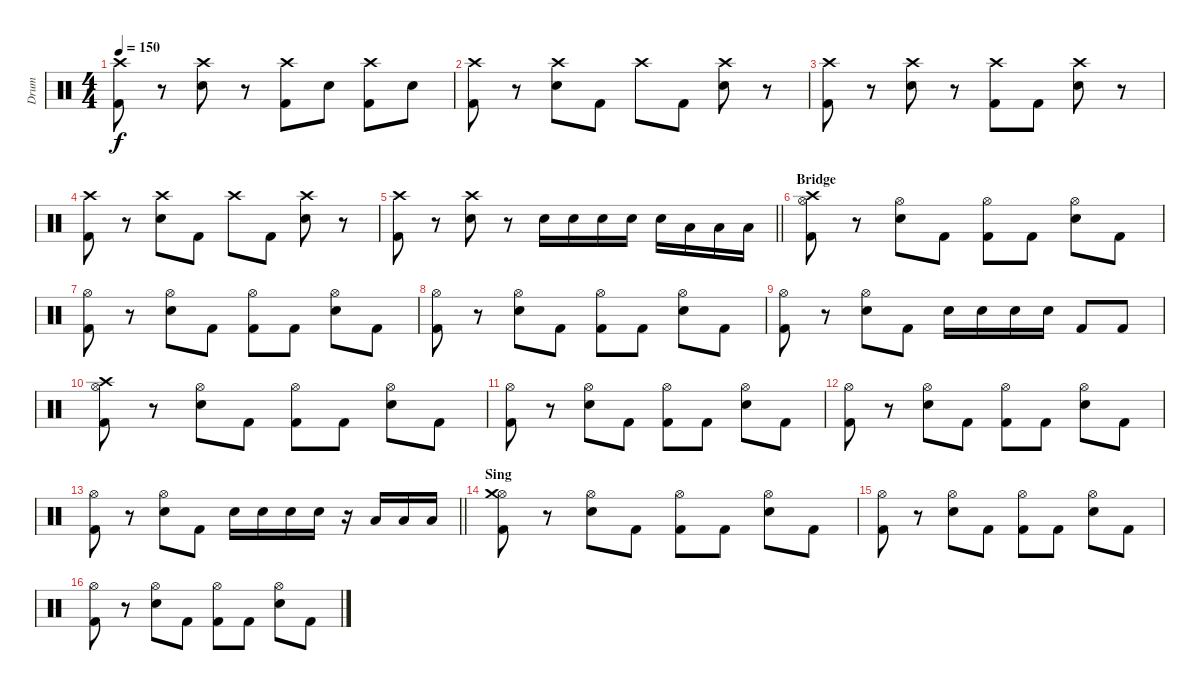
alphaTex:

\track ("Drum" "Drum") {instrument percussion}
\staff {score}
\articulation defaults
\ts (4 4)
\tempo 150
\clef neutral
\ks c
("Crash high (hit)" "Kick (hit) 2").8{dy f} r.8 ("Crash high (hit)" "Electric Snare (hit)").8 r.8 ("Crash high (hit)" "Kick (hit) 2").8 "Electric Snare (hit)".8 ("Crash high (hit)" "Kick (hit) 2").8 "Electric Snare (hit)".8 |
("Crash high (hit)" "Kick (hit) 2").8 r.8 ("Crash high (hit)" "Electric Snare (hit)").8 "Kick (hit) 2".8 "Crash high (hit)".8 "Kick (hit) 2".8 ("Crash high (hit)" "Electric Snare (hit)").8 r.8 |
("Crash high (hit)" "Kick (hit) 2").8 r.8 ("Crash high (hit)" "Electric Snare (hit)").8 r.8 ("Crash high (hit)" "Kick (hit) 2").8 "Kick (hit) 2".8 ("Crash high (hit)" "Electric Snare (hit)").8 r.8 |
("Crash high (hit)" "Kick (hit) 2").8 r.8 ("Crash high (hit)" "Electric Snare (hit)").8 "Kick (hit) 2".8 "Crash high (hit)".8 "Kick (hit) 2".8 ("Crash high (hit)" "Electric Snare (hit)").8 r.8 |
\barLineRight lightlight
("Crash high (hit)" "Kick (hit) 2").8 r.8 ("Crash high (hit)" "Electric Snare (hit)").8 r.8 "Electric Snare (hit)".16 "Electric Snare (hit)".16 "Electric Snare (hit)".16 "Electric Snare (hit)".16 "Electric Snare (hit)".16 "Low Floor Tom (hit)".16 "Low Floor Tom (hit)".16 "Low Floor Tom (hit)".16 |
\section ("" "Bridge")
("Hi-Hat (open)" "Kick (hit) 2" "Crash high (hit)").8 r.8 ("Hi-Hat (open)" "Electric Snare (hit)").8 "Kick (hit) 2".8 ("Hi-Hat (open)" "Kick (hit) 2").8 "Kick (hit) 2".8 ("Hi-Hat (open)" "Electric Snare (hit)").8 "Kick (hit) 2".8 |
("Hi-Hat (open)" "Kick (hit) 2").8 r.8 ("Hi-Hat (open)" "Electric Snare (hit)").8 "Kick (hit) 2".8 ("Hi-Hat (open)" "Kick (hit) 2").8 "Kick (hit) 2".8 ("Hi-Hat (open)" "Electric Snare (hit)").8 "Kick (hit) 2".8 |
("Hi-Hat (open)" "Kick (hit) 2").8 r.8 ("Hi-Hat (open)" "Electric Snare (hit)").8 "Kick (hit) 2".8 ("Hi-Hat (open)" "Kick (hit) 2").8 "Kick (hit) 2".8 ("Hi-Hat (open)" "Electric Snare (hit)").8 "Kick (hit) 2".8 |
("Hi-Hat (open)" "Kick (hit) 2").8 r.8 ("Hi-Hat (open)" "Electric Snare (hit)").8 "Kick (hit) 2".8 "Electric Snare (hit)".16 "Electric Snare (hit)".16 "Electric Snare (hit)".16 "Electric Snare (hit)".16 "Kick (hit) 2".8 "Kick (hit) 2".8 |
("Hi-Hat (open)" "Kick (hit) 2" "Crash high (hit)").8 r.8 ("Hi-Hat (open)" "Electric Snare (hit)").8 "Kick (hit) 2".8 ("Hi-Hat (open)" "Kick (hit) 2").8 "Kick (hit) 2".8 ("Hi-Hat (open)" "Electric Snare (hit)").8 "Kick (hit) 2".8 |
("Hi-Hat (open)" "Kick (hit) 2").8 r.8 ("Hi-Hat (open)" "Electric Snare (hit)").8 "Kick (hit) 2".8 ("Hi-Hat (open)" "Kick (hit) 2").8 "Kick (hit) 2".8 ("Hi-Hat (open)" "Electric Snare (hit)").8 "Kick (hit) 2".8 |
("Hi-Hat (open)" "Kick (hit) 2").8 r.8 ("Hi-Hat (open)" "Electric Snare (hit)").8 "Kick (hit) 2".8 ("Hi-Hat (open)" "Kick (hit) 2").8 "Kick (hit) 2".8 ("Hi-Hat (open)" "Electric Snare (hit)").8 "Kick (hit) 2".8 |
\barLineRight lightlight
("Hi-Hat (open)" "Kick (hit) 2").8 r.8 ("Hi-Hat (open)" "Electric Snare (hit)").8 "Kick (hit) 2".8 "Electric Snare (hit)".16 "Electric Snare (hit)".16 "Electric Snare (hit)".16 "Electric Snare (hit)".16 r.16 "Low Floor Tom (hit)".16 "Low Floor Tom (hit)".16 "Low Floor Tom (hit)".16 |
\section ("" "Sing")
("Hi-Hat (open)" "Kick (hit) 2" "Crash medium (hit)").8 r.8 ("Hi-Hat (open)" "Electric Snare (hit)").8 "Kick (hit) 2".8 ("Hi-Hat (open)" "Kick (hit) 2").8 "Kick (hit) 2".8 ("Hi-Hat (open)" "Electric Snare (hit)").8 "Kick (hit) 2".8 |
("Hi-Hat (open)" "Kick (hit) 2").8 r.8 ("Hi-Hat (open)" "Electric Snare (hit)").8 "Kick (hit) 2".8 ("Hi-Hat (open)" "Kick (hit) 2").8 "Kick (hit) 2".8 ("Hi-Hat (open)" "Electric Snare (hit)").8 "Kick (hit) 2".8 |
("Hi-Hat (open)" "Kick (hit) 2").8 r.8 ("Hi-Hat (open)" "Electric Snare (hit)").8 "Kick (hit) 2".8 ("Hi-Hat (open)" "Kick (hit) 2").8 "Kick (hit) 2".8 ("Hi-Hat (open)" "Electric Snare (hit)").8 "Kick (hit) 2".8
